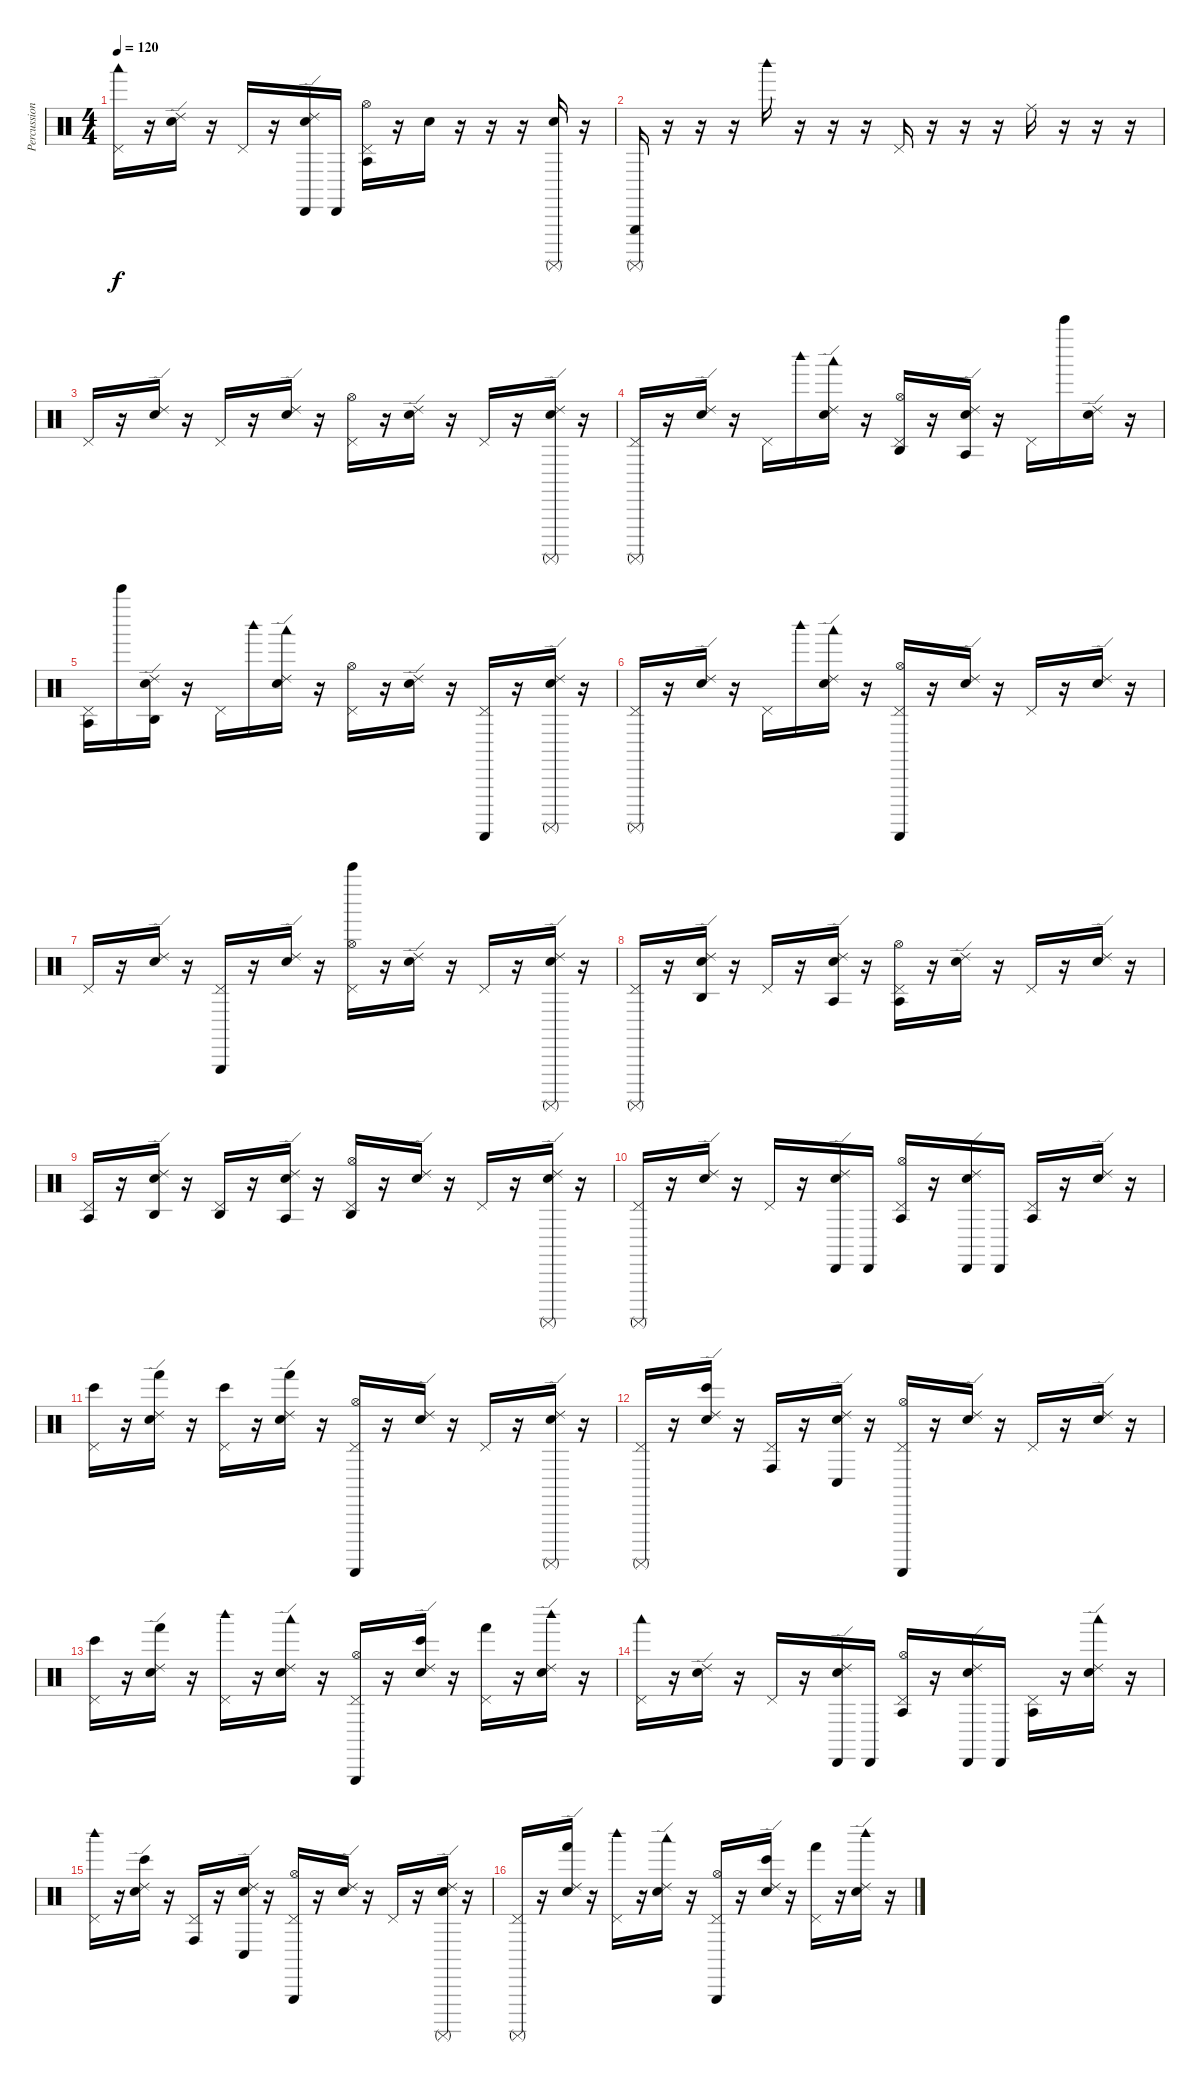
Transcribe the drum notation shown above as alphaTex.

\track ("Percussions" "Percussion") {instrument percussion}
\staff {score}
\articulation defaults
\ts (4 4)
\tempo 120
\clef neutral
\ks c
("Woodblock low (hit)" "Pedal Hi-Hat (hit)").16{dy f} r.16 ("Ride (edge) 2" "Metronome (bell)").16 r.16 "Pedal Hi-Hat (hit)".16 r.16 ("Cabasa (hit)" "Ride (edge) 2" "Metronome (bell)").16 "Cabasa (hit)".16 ("Agogo tow (hit)" "Pedal Hi-Hat (hit)" "Hi-Hat (open)").16 r.16 "Metronome (bell)".16 r.16 r.16 r.16 ("Surdo (mute)" "Metronome (bell)").16 r.16 |
("Triangle (hit)" "Surdo (mute)").16 r.16 r.16 r.16 "Woodblock high (hit)".16 r.16 r.16 r.16 "Pedal Hi-Hat (hit)".16 r.16 r.16 r.16 "Ride (middle)".16 r.16 r.16 r.16 |
"Pedal Hi-Hat (hit)".16 r.16 ("Ride (edge) 2" "Metronome (bell)").16 r.16 "Pedal Hi-Hat (hit)".16 r.16 ("Ride (edge) 2" "Metronome (bell)").16 r.16 ("Pedal Hi-Hat (hit)" "Hi-Hat (open)").16 r.16 ("Ride (edge) 2" "Metronome (bell)").16 r.16 "Pedal Hi-Hat (hit)".16 r.16 ("Surdo (mute)" "Ride (edge) 2" "Metronome (bell)").16 r.16 |
("Surdo (mute)" "Pedal Hi-Hat (hit)").16 r.16 ("Ride (edge) 2" "Metronome (bell)").16 r.16 "Pedal Hi-Hat (hit)".16 "Woodblock high (hit)".16 ("Woodblock low (hit)" "Ride (edge) 2" "Metronome (bell)").16 r.16 ("Agogo high (hit)" "Pedal Hi-Hat (hit)" "Hi-Hat (open)").16 r.16 ("Agogo tow (hit)" "Ride (edge) 2" "Metronome (bell)").16 r.16 "Pedal Hi-Hat (hit)".16 "Bell Tree (hit)".16 ("Ride (edge) 2" "Metronome (bell)").16 r.16 |
("Agogo tow (hit)" "Pedal Hi-Hat (hit)").16 "Bell Tree (hit)".16 ("Agogo high (hit)" "Ride (edge) 2" "Metronome (bell)").16 r.16 "Pedal Hi-Hat (hit)".16 "Woodblock high (hit)".16 ("Woodblock low (hit)" "Ride (edge) 2" "Metronome (bell)").16 r.16 ("Pedal Hi-Hat (hit)" "Hi-Hat (open)").16 r.16 ("Ride (edge) 2" "Metronome (bell)").16 r.16 ("Guiro (scrap-return)" "Pedal Hi-Hat (hit)").16 r.16 ("Surdo (mute)" "Ride (edge) 2" "Metronome (bell)").16 r.16 |
("Surdo (mute)" "Pedal Hi-Hat (hit)").16 r.16 ("Ride (edge) 2" "Metronome (bell)").16 r.16 "Pedal Hi-Hat (hit)".16 "Woodblock high (hit)".16 ("Woodblock low (hit)" "Ride (edge) 2" "Metronome (bell)").16 r.16 ("Guiro (scrap-return)" "Pedal Hi-Hat (hit)" "Hi-Hat (open)").16 r.16 ("Ride (edge) 2" "Metronome (bell)").16 r.16 "Pedal Hi-Hat (hit)".16 r.16 ("Ride (edge) 2" "Metronome (bell)").16 r.16 |
"Pedal Hi-Hat (hit)".16 r.16 ("Ride (edge) 2" "Metronome (bell)").16 r.16 ("Triangle (hit)" "Pedal Hi-Hat (hit)").16 r.16 ("Ride (edge) 2" "Metronome (bell)").16 r.16 ("Bell Tree (hit)" "Pedal Hi-Hat (hit)" "Hi-Hat (open)").16 r.16 ("Ride (edge) 2" "Metronome (bell)").16 r.16 "Pedal Hi-Hat (hit)".16 r.16 ("Surdo (mute)" "Ride (edge) 2" "Metronome (bell)").16 r.16 |
("Surdo (mute)" "Pedal Hi-Hat (hit)").16 r.16 ("Agogo high (hit)" "Ride (edge) 2" "Metronome (bell)").16 r.16 "Pedal Hi-Hat (hit)".16 r.16 ("Agogo tow (hit)" "Ride (edge) 2" "Metronome (bell)").16 r.16 ("Agogo tow (hit)" "Pedal Hi-Hat (hit)" "Hi-Hat (open)").16 r.16 ("Ride (edge) 2" "Metronome (bell)").16 r.16 "Pedal Hi-Hat (hit)".16 r.16 ("Ride (edge) 2" "Metronome (bell)").16 r.16 |
("Agogo tow (hit)" "Pedal Hi-Hat (hit)").16 r.16 ("Agogo high (hit)" "Ride (edge) 2" "Metronome (bell)").16 r.16 ("Agogo high (hit)" "Pedal Hi-Hat (hit)").16 r.16 ("Agogo tow (hit)" "Ride (edge) 2" "Metronome (bell)").16 r.16 ("Agogo high (hit)" "Pedal Hi-Hat (hit)" "Hi-Hat (open)").16 r.16 ("Ride (edge) 2" "Metronome (bell)").16 r.16 "Pedal Hi-Hat (hit)".16 r.16 ("Surdo (mute)" "Ride (edge) 2" "Metronome (bell)").16 r.16 |
("Surdo (mute)" "Pedal Hi-Hat (hit)").16 r.16 ("Ride (edge) 2" "Metronome (bell)").16 r.16 "Pedal Hi-Hat (hit)".16 r.16 ("Cabasa (hit)" "Ride (edge) 2" "Metronome (bell)").16 "Cabasa (hit)".16 ("Agogo tow (hit)" "Pedal Hi-Hat (hit)" "Hi-Hat (open)").16 r.16 ("Cabasa (hit)" "Ride (edge) 2" "Metronome (bell)").16 "Cabasa (hit)".16 ("Agogo tow (hit)" "Pedal Hi-Hat (hit)").16 r.16 ("Ride (edge) 2" "Metronome (bell)").16 r.16 |
("Bongo High (hit)" "Pedal Hi-Hat (hit)").16 r.16 ("Hand (hit)" "Ride (edge) 2" "Metronome (bell)").16 r.16 ("Bongo High (hit)" "Pedal Hi-Hat (hit)").16 r.16 ("Hand (hit)" "Ride (edge) 2" "Metronome (bell)").16 r.16 ("Guiro (scrap-return)" "Pedal Hi-Hat (hit)" "Hi-Hat (open)").16 r.16 ("Ride (edge) 2" "Metronome (bell)").16 r.16 "Pedal Hi-Hat (hit)".16 r.16 ("Surdo (mute)" "Ride (edge) 2" "Metronome (bell)").16 r.16 |
("Surdo (mute)" "Pedal Hi-Hat (hit)").16 r.16 ("Bongo High (hit)" "Ride (edge) 2" "Metronome (bell)").16 r.16 ("Conga high (hit)" "Pedal Hi-Hat (hit)").16 r.16 ("Conga low (hit)" "Ride (edge) 2" "Metronome (bell)").16 r.16 ("Guiro (scrap-return)" "Pedal Hi-Hat (hit)" "Hi-Hat (open)").16 r.16 ("Ride (edge) 2" "Metronome (bell)").16 r.16 "Pedal Hi-Hat (hit)".16 r.16 ("Ride (edge) 2" "Metronome (bell)").16 r.16 |
("Bongo High (hit)" "Pedal Hi-Hat (hit)").16 r.16 ("Hand (hit)" "Ride (edge) 2" "Metronome (bell)").16 r.16 ("Woodblock high (hit)" "Pedal Hi-Hat (hit)").16 r.16 ("Woodblock low (hit)" "Ride (edge) 2" "Metronome (bell)").16 r.16 ("Triangle (hit)" "Pedal Hi-Hat (hit)" "Hi-Hat (open)").16 r.16 ("Bongo High (hit)" "Ride (edge) 2" "Metronome (bell)").16 r.16 ("Hand (hit)" "Pedal Hi-Hat (hit)").16 r.16 ("Woodblock high (hit)" "Ride (edge) 2" "Metronome (bell)").16 r.16 |
("Woodblock low (hit)" "Pedal Hi-Hat (hit)").16 r.16 ("Ride (edge) 2" "Metronome (bell)").16 r.16 "Pedal Hi-Hat (hit)".16 r.16 ("Cabasa (hit)" "Ride (edge) 2" "Metronome (bell)").16 "Cabasa (hit)".16 ("Agogo tow (hit)" "Pedal Hi-Hat (hit)" "Hi-Hat (open)").16 r.16 ("Cabasa (hit)" "Ride (edge) 2" "Metronome (bell)").16 "Cabasa (hit)".16 ("Agogo tow (hit)" "Pedal Hi-Hat (hit)").16 r.16 ("Woodblock low (hit)" "Ride (edge) 2" "Metronome (bell)").16 r.16 |
("Woodblock high (hit)" "Pedal Hi-Hat (hit)").16 r.16 ("Bongo High (hit)" "Ride (edge) 2" "Metronome (bell)").16 r.16 ("Conga high (hit)" "Pedal Hi-Hat (hit)").16 r.16 ("Conga low (hit)" "Ride (edge) 2" "Metronome (bell)").16 r.16 ("Triangle (hit)" "Pedal Hi-Hat (hit)" "Hi-Hat (open)").16 r.16 ("Ride (edge) 2" "Metronome (bell)").16 r.16 "Pedal Hi-Hat (hit)".16 r.16 ("Surdo (mute)" "Ride (edge) 2" "Metronome (bell)").16 r.16 |
("Surdo (mute)" "Pedal Hi-Hat (hit)").16 r.16 ("Hand (hit)" "Ride (edge) 2" "Metronome (bell)").16 r.16 ("Woodblock high (hit)" "Pedal Hi-Hat (hit)").16 r.16 ("Woodblock low (hit)" "Ride (edge) 2" "Metronome (bell)").16 r.16 ("Triangle (hit)" "Pedal Hi-Hat (hit)" "Hi-Hat (open)").16 r.16 ("Bongo High (hit)" "Ride (edge) 2" "Metronome (bell)").16 r.16 ("Hand (hit)" "Pedal Hi-Hat (hit)").16 r.16 ("Woodblock high (hit)" "Ride (edge) 2" "Metronome (bell)").16 r.16
